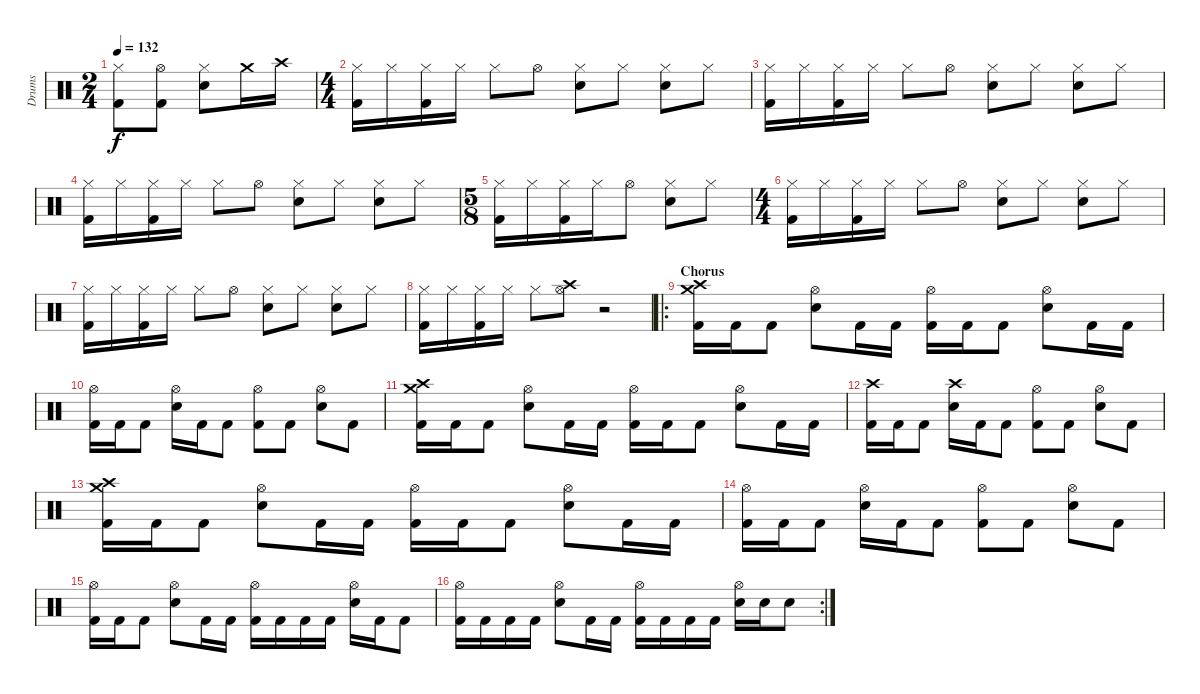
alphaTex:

\track ("Drums" "Drums") {instrument percussion}
\staff {score}
\articulation defaults
\ts (2 4)
\tempo 132
\clef neutral
\ks c
("Hi-Hat (closed)" "Kick (hit) 2").8{dy f} ("Hi-Hat (open)" "Kick (hit) 2").8 ("Hi-Hat (closed)" "Electric Snare (hit)").8 "Crash medium (hit)".16 "Crash high (hit)".16 |
\ts (4 4)
("Hi-Hat (closed)" "Kick (hit) 2").16 "Hi-Hat (closed)".16 ("Hi-Hat (closed)" "Kick (hit) 2").16 "Hi-Hat (closed)".16 "Hi-Hat (closed)".8 "Hi-Hat (open)".8 ("Hi-Hat (closed)" "Electric Snare (hit)").8 "Hi-Hat (closed)".8 ("Hi-Hat (closed)" "Electric Snare (hit)").8 "Hi-Hat (closed)".8 |
("Hi-Hat (closed)" "Kick (hit) 2").16 "Hi-Hat (closed)".16 ("Hi-Hat (closed)" "Kick (hit) 2").16 "Hi-Hat (closed)".16 "Hi-Hat (closed)".8 "Hi-Hat (open)".8 ("Hi-Hat (closed)" "Electric Snare (hit)").8 "Hi-Hat (closed)".8 ("Hi-Hat (closed)" "Electric Snare (hit)").8 "Hi-Hat (closed)".8 |
("Hi-Hat (closed)" "Kick (hit) 2").16 "Hi-Hat (closed)".16 ("Hi-Hat (closed)" "Kick (hit) 2").16 "Hi-Hat (closed)".16 "Hi-Hat (closed)".8 "Hi-Hat (open)".8 ("Hi-Hat (closed)" "Electric Snare (hit)").8 "Hi-Hat (closed)".8 ("Hi-Hat (closed)" "Electric Snare (hit)").8 "Hi-Hat (closed)".8 |
\ts (5 8)
("Hi-Hat (closed)" "Kick (hit) 2").16 "Hi-Hat (closed)".16 ("Hi-Hat (closed)" "Kick (hit) 2").16 "Hi-Hat (closed)".16 "Hi-Hat (open)".8 ("Hi-Hat (closed)" "Electric Snare (hit)").8 "Hi-Hat (closed)".8 |
\ts (4 4)
("Hi-Hat (closed)" "Kick (hit) 2").16 "Hi-Hat (closed)".16 ("Hi-Hat (closed)" "Kick (hit) 2").16 "Hi-Hat (closed)".16 "Hi-Hat (closed)".8 "Hi-Hat (open)".8 ("Hi-Hat (closed)" "Electric Snare (hit)").8 "Hi-Hat (closed)".8 ("Hi-Hat (closed)" "Electric Snare (hit)").8 "Hi-Hat (closed)".8 |
("Hi-Hat (closed)" "Kick (hit) 2").16 "Hi-Hat (closed)".16 ("Hi-Hat (closed)" "Kick (hit) 2").16 "Hi-Hat (closed)".16 "Hi-Hat (closed)".8 "Hi-Hat (open)".8 ("Hi-Hat (closed)" "Electric Snare (hit)").8 "Hi-Hat (closed)".8 ("Hi-Hat (closed)" "Electric Snare (hit)").8 "Hi-Hat (closed)".8 |
("Hi-Hat (closed)" "Kick (hit) 2").16 "Hi-Hat (closed)".16 ("Hi-Hat (closed)" "Kick (hit) 2").16 "Hi-Hat (closed)".16 "Hi-Hat (closed)".8 ("Crash high (hit)" "Hi-Hat (open)").8 r.2 |
\ro
\section ("" "Chorus")
("Crash high (hit)" "Crash medium (hit)" "Kick (hit) 2").16 "Kick (hit) 2".16 "Kick (hit) 2".8 ("Hi-Hat (open)" "Electric Snare (hit)").8 "Kick (hit) 2".16 "Kick (hit) 2".16 ("Hi-Hat (open)" "Kick (hit) 2").16 "Kick (hit) 2".16 "Kick (hit) 2".8 ("Hi-Hat (open)" "Electric Snare (hit)").8 "Kick (hit) 2".16 "Kick (hit) 2".16 |
("Hi-Hat (open)" "Kick (hit) 2").16 "Kick (hit) 2".16 "Kick (hit) 2".8 ("Hi-Hat (open)" "Electric Snare (hit)").16 "Kick (hit) 2".16 "Kick (hit) 2".8 ("Hi-Hat (open)" "Kick (hit) 2").8 "Kick (hit) 2".8 ("Hi-Hat (open)" "Electric Snare (hit)").8 "Kick (hit) 2".8 |
("Crash high (hit)" "Crash medium (hit)" "Kick (hit) 2").16 "Kick (hit) 2".16 "Kick (hit) 2".8 ("Hi-Hat (open)" "Electric Snare (hit)").8 "Kick (hit) 2".16 "Kick (hit) 2".16 ("Hi-Hat (open)" "Kick (hit) 2").16 "Kick (hit) 2".16 "Kick (hit) 2".8 ("Hi-Hat (open)" "Electric Snare (hit)").8 "Kick (hit) 2".16 "Kick (hit) 2".16 |
("Crash high (hit)" "Kick (hit) 2").16 "Kick (hit) 2".16 "Kick (hit) 2".8 ("Crash high (hit)" "Electric Snare (hit)").16 "Kick (hit) 2".16 "Kick (hit) 2".8 ("Hi-Hat (open)" "Kick (hit) 2").8 "Kick (hit) 2".8 ("Hi-Hat (open)" "Electric Snare (hit)").8 "Kick (hit) 2".8 |
("Crash high (hit)" "Crash medium (hit)" "Kick (hit) 2").16 "Kick (hit) 2".16 "Kick (hit) 2".8 ("Hi-Hat (open)" "Electric Snare (hit)").8 "Kick (hit) 2".16 "Kick (hit) 2".16 ("Hi-Hat (open)" "Kick (hit) 2").16 "Kick (hit) 2".16 "Kick (hit) 2".8 ("Hi-Hat (open)" "Electric Snare (hit)").8 "Kick (hit) 2".16 "Kick (hit) 2".16 |
("Hi-Hat (open)" "Kick (hit) 2").16 "Kick (hit) 2".16 "Kick (hit) 2".8 ("Hi-Hat (open)" "Electric Snare (hit)").16 "Kick (hit) 2".16 "Kick (hit) 2".8 ("Hi-Hat (open)" "Kick (hit) 2").8 "Kick (hit) 2".8 ("Hi-Hat (open)" "Electric Snare (hit)").8 "Kick (hit) 2".8 |
("Hi-Hat (open)" "Kick (hit) 2").16 "Kick (hit) 2".16 "Kick (hit) 2".8 ("Hi-Hat (open)" "Electric Snare (hit)").8 "Kick (hit) 2".16 "Kick (hit) 2".16 ("Hi-Hat (open)" "Kick (hit) 2").16 "Kick (hit) 2".16 "Kick (hit) 2".16 "Kick (hit) 2".16 ("Hi-Hat (open)" "Electric Snare (hit)").16 "Kick (hit) 2".16 "Kick (hit) 2".8 |
\rc 2
("Hi-Hat (open)" "Kick (hit) 2").16 "Kick (hit) 2".16 "Kick (hit) 2".16 "Kick (hit) 2".16 ("Hi-Hat (open)" "Electric Snare (hit)").8 "Kick (hit) 2".16 "Kick (hit) 2".16 ("Hi-Hat (open)" "Kick (hit) 2").16 "Kick (hit) 2".16 "Kick (hit) 2".16 "Kick (hit) 2".16 ("Hi-Hat (open)" "Electric Snare (hit)").16 "Electric Snare (hit)".16 "Electric Snare (hit)".8
